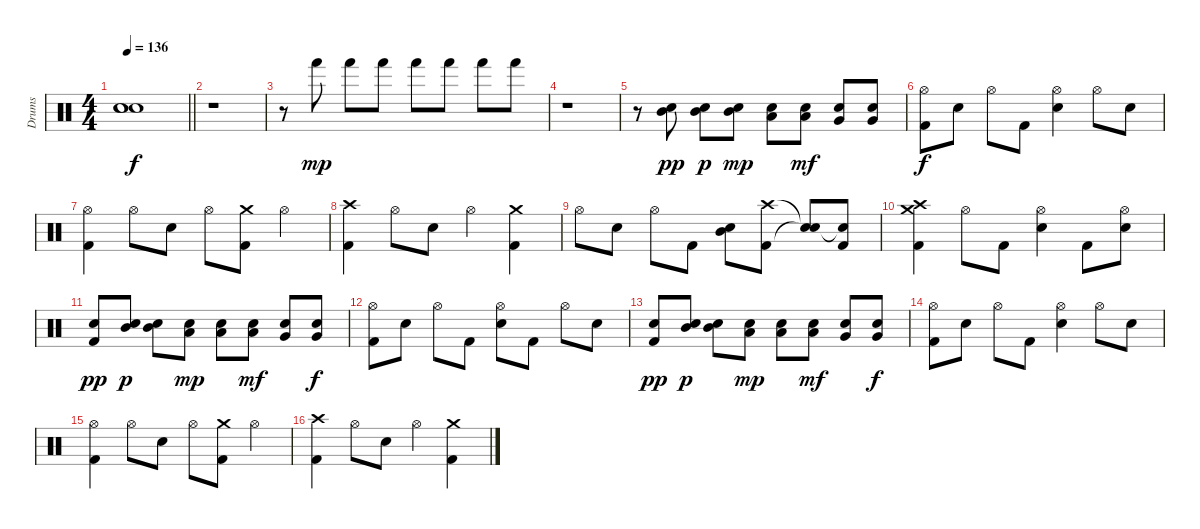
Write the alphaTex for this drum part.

\track ("Drums" "Drums") {instrument percussion}
\staff {score}
\articulation defaults
\ts (4 4)
\tempo 136
\clef neutral
\barLineRight lightlight
\ks c
("Snare (hit)"{t} "Snare (hit)"{t} "Snare (hit)"{t}).1{dy f} |
r.1 |
r.8 "Hand (hit)".8{dy mp} "Hand (hit)".8 "Hand (hit)".8 "Hand (hit)".8 "Hand (hit)".8 "Hand (hit)".8 "Hand (hit)".8 |
r.1 |
r.8 ("Mid Tom (hit)" "Electric Snare (hit)").8{dy pp} ("Mid Tom (hit)" "Electric Snare (hit)").8{dy p} ("Mid Tom (hit)" "Electric Snare (hit)").8{dy mp} ("Low Tom (hit)" "Electric Snare (hit)").8 ("Low Tom (hit)" "Electric Snare (hit)").8{dy mf} ("Very Low Tom (hit)" "Electric Snare (hit)").8 ("Very Low Tom (hit)" "Electric Snare (hit)").8 |
("Hi-Hat (open)" "Kick (hit) 2").8{dy f} "Electric Snare (hit)".8 "Hi-Hat (open)".8 "Kick (hit) 2".8 ("Hi-Hat (open)" "Electric Snare (hit)").4 "Hi-Hat (open)".8 "Electric Snare (hit)".8 |
("Hi-Hat (open)" "Kick (hit) 2").4 "Hi-Hat (open)".8 "Electric Snare (hit)".8 "Hi-Hat (open)".8 ("Crash medium (hit)" "Kick (hit) 2").8 "Hi-Hat (open)".4 |
("Crash high (hit)" "Kick (hit) 2").4 "Hi-Hat (open)".8 "Electric Snare (hit)".8 "Hi-Hat (open)".4 ("Crash medium (hit)" "Kick (hit) 2").4 |
"Hi-Hat (open)".8 "Electric Snare (hit)".8 "Hi-Hat (open)".8 "Kick (hit) 2".8 ("Mid Tom (hit)" "Electric Snare (hit)").8 ("Crash high (hit)" "Kick (hit) 2").8 ("Snare (hit)"{t} "Snare (hit)"{t}).8 ("Snare (hit)"{t} "Kick (hit) 2").8 |
("Crash high (hit)" "Crash medium (hit)" "Kick (hit) 2").4 "Hi-Hat (open)".8 "Kick (hit) 2".8 ("Hi-Hat (open)" "Electric Snare (hit)").4 "Kick (hit) 2".8 ("Hi-Hat (open)" "Electric Snare (hit)").8 |
("Electric Snare (hit)" "Kick (hit) 2").8{dy pp} ("Mid Tom (hit)" "Electric Snare (hit)").8{dy p} ("Mid Tom (hit)" "Electric Snare (hit)").8 ("Low Tom (hit)" "Electric Snare (hit)").8{dy mp} ("Low Tom (hit)" "Electric Snare (hit)").8 ("Low Tom (hit)" "Electric Snare (hit)").8{dy mf} ("Very Low Tom (hit)" "Electric Snare (hit)").8 ("Very Low Tom (hit)" "Electric Snare (hit)").8{dy f} |
("Hi-Hat (open)" "Kick (hit) 2").8 "Electric Snare (hit)".8 "Hi-Hat (open)".8 "Kick (hit) 2".8 ("Hi-Hat (open)" "Electric Snare (hit)").8 "Kick (hit) 2".8 "Hi-Hat (open)".8 "Electric Snare (hit)".8 |
("Electric Snare (hit)" "Kick (hit) 2").8{dy pp} ("Mid Tom (hit)" "Electric Snare (hit)").8{dy p} ("Mid Tom (hit)" "Electric Snare (hit)").8 ("Low Tom (hit)" "Electric Snare (hit)").8{dy mp} ("Low Tom (hit)" "Electric Snare (hit)").8 ("Low Tom (hit)" "Electric Snare (hit)").8{dy mf} ("Very Low Tom (hit)" "Electric Snare (hit)").8 ("Very Low Tom (hit)" "Electric Snare (hit)").8{dy f} |
("Hi-Hat (open)" "Kick (hit) 2").8 "Electric Snare (hit)".8 "Hi-Hat (open)".8 "Kick (hit) 2".8 ("Hi-Hat (open)" "Electric Snare (hit)").4 "Hi-Hat (open)".8 "Electric Snare (hit)".8 |
("Hi-Hat (open)" "Kick (hit) 2").4 "Hi-Hat (open)".8 "Electric Snare (hit)".8 "Hi-Hat (open)".8 ("Crash medium (hit)" "Kick (hit) 2").8 "Hi-Hat (open)".4 |
("Crash high (hit)" "Kick (hit) 2").4 "Hi-Hat (open)".8 "Electric Snare (hit)".8 "Hi-Hat (open)".4 ("Crash medium (hit)" "Kick (hit) 2").4
